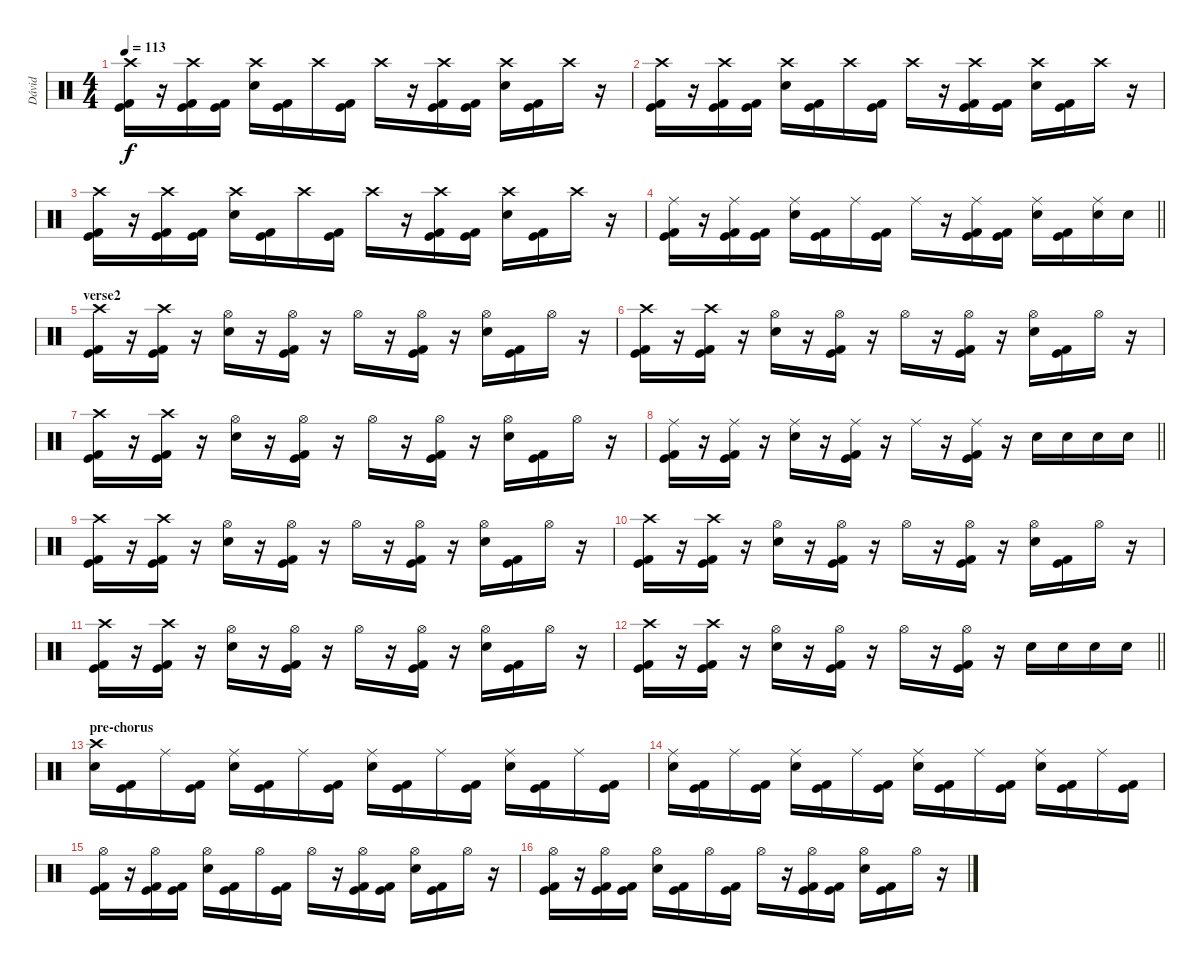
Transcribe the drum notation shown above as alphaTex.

\track ("Dávid" "Dávid") {instrument percussion}
\staff {score}
\articulation defaults
\ts (4 4)
\tempo 113
\clef neutral
\ks c
("Crash high (hit)" "Kick (hit)" "Kick (hit) 2").16{dy f} r.16 ("Crash high (hit)" "Kick (hit)" "Kick (hit) 2").16 ("Kick (hit)" "Kick (hit) 2").16 ("Crash high (hit)" "Snare (hit) 2").16 ("Kick (hit)" "Kick (hit) 2").16 "Crash high (hit)".16 ("Kick (hit)" "Kick (hit) 2").16 "Crash high (hit)".16 r.16 ("Crash high (hit)" "Kick (hit)" "Kick (hit) 2").16 ("Kick (hit) 2" "Kick (hit)").16 ("Crash high (hit)" "Snare (hit) 2").16 ("Kick (hit)" "Kick (hit) 2").16 "Crash high (hit)".16 r.16 |
("Crash high (hit)" "Kick (hit)" "Kick (hit) 2").16 r.16 ("Crash high (hit)" "Kick (hit)" "Kick (hit) 2").16 ("Kick (hit)" "Kick (hit) 2").16 ("Crash high (hit)" "Snare (hit) 2").16 ("Kick (hit)" "Kick (hit) 2").16 "Crash high (hit)".16 ("Kick (hit)" "Kick (hit) 2").16 "Crash high (hit)".16 r.16 ("Crash high (hit)" "Kick (hit)" "Kick (hit) 2").16 ("Kick (hit) 2" "Kick (hit)").16 ("Crash high (hit)" "Snare (hit) 2").16 ("Kick (hit)" "Kick (hit) 2").16 "Crash high (hit)".16 r.16 |
("Crash high (hit)" "Kick (hit)" "Kick (hit) 2").16 r.16 ("Crash high (hit)" "Kick (hit)" "Kick (hit) 2").16 ("Kick (hit)" "Kick (hit) 2").16 ("Crash high (hit)" "Snare (hit) 2").16 ("Kick (hit)" "Kick (hit) 2").16 "Crash high (hit)".16 ("Kick (hit)" "Kick (hit) 2").16 "Crash high (hit)".16 r.16 ("Crash high (hit)" "Kick (hit)" "Kick (hit) 2").16 ("Kick (hit) 2" "Kick (hit)").16 ("Crash high (hit)" "Snare (hit) 2").16 ("Kick (hit)" "Kick (hit) 2").16 "Crash high (hit)".16 r.16 |
\barLineRight lightlight
("Ride (middle)" "Kick (hit)" "Kick (hit) 2").16 r.16 ("Ride (middle)" "Kick (hit)" "Kick (hit) 2").16 ("Kick (hit)" "Kick (hit) 2").16 ("Ride (middle)" "Snare (hit) 2").16 ("Kick (hit)" "Kick (hit) 2").16 "Ride (middle)".16 ("Kick (hit)" "Kick (hit) 2").16 "Ride (middle)".16 r.16 ("Ride (middle)" "Kick (hit)" "Kick (hit) 2").16 ("Kick (hit) 2" "Kick (hit)").16 ("Ride (middle)" "Snare (hit) 2").16 ("Kick (hit)" "Kick (hit) 2").16 ("Ride (middle)" "Snare (hit) 2").16 "Snare (hit) 2".16 |
\section ("" "verse2")
("Crash high (hit)" "Kick (hit)" "Kick (hit) 2").16 r.16 ("Crash high (hit)" "Kick (hit)" "Kick (hit) 2").16 r.16 ("Hi-Hat (open)" "Snare (hit) 2").16 r.16 ("Hi-Hat (open)" "Kick (hit) 2" "Kick (hit)").16 r.16 "Hi-Hat (open)".16 r.16 ("Hi-Hat (open)" "Kick (hit) 2" "Kick (hit)").16 r.16 ("Hi-Hat (open)" "Snare (hit) 2").16 ("Kick (hit) 2" "Kick (hit)").16 "Hi-Hat (open)".16 r.16 |
("Crash high (hit)" "Kick (hit)" "Kick (hit) 2").16 r.16 ("Crash high (hit)" "Kick (hit)" "Kick (hit) 2").16 r.16 ("Hi-Hat (open)" "Snare (hit) 2").16 r.16 ("Hi-Hat (open)" "Kick (hit) 2" "Kick (hit)").16 r.16 "Hi-Hat (open)".16 r.16 ("Hi-Hat (open)" "Kick (hit) 2" "Kick (hit)").16 r.16 ("Hi-Hat (open)" "Snare (hit) 2").16 ("Kick (hit) 2" "Kick (hit)").16 "Hi-Hat (open)".16 r.16 |
("Crash high (hit)" "Kick (hit)" "Kick (hit) 2").16 r.16 ("Crash high (hit)" "Kick (hit)" "Kick (hit) 2").16 r.16 ("Hi-Hat (open)" "Snare (hit) 2").16 r.16 ("Hi-Hat (open)" "Kick (hit) 2" "Kick (hit)").16 r.16 "Hi-Hat (open)".16 r.16 ("Hi-Hat (open)" "Kick (hit) 2" "Kick (hit)").16 r.16 ("Hi-Hat (open)" "Snare (hit) 2").16 ("Kick (hit) 2" "Kick (hit)").16 "Hi-Hat (open)".16 r.16 |
\barLineRight lightlight
("Ride (middle)" "Kick (hit)" "Kick (hit) 2").16 r.16 ("Ride (middle)" "Kick (hit)" "Kick (hit) 2").16 r.16 ("Ride (middle)" "Snare (hit) 2").16 r.16 ("Ride (middle)" "Kick (hit) 2" "Kick (hit)").16 r.16 "Ride (middle)".16 r.16 ("Ride (middle)" "Kick (hit) 2" "Kick (hit)").16 r.16 "Snare (hit) 2".16 "Snare (hit) 2".16 "Snare (hit) 2".16 "Snare (hit) 2".16 |
("Crash high (hit)" "Kick (hit)" "Kick (hit) 2").16 r.16 ("Crash high (hit)" "Kick (hit)" "Kick (hit) 2").16 r.16 ("Hi-Hat (open)" "Snare (hit) 2").16 r.16 ("Hi-Hat (open)" "Kick (hit) 2" "Kick (hit)").16 r.16 "Hi-Hat (open)".16 r.16 ("Hi-Hat (open)" "Kick (hit) 2" "Kick (hit)").16 r.16 ("Hi-Hat (open)" "Snare (hit) 2").16 ("Kick (hit) 2" "Kick (hit)").16 "Hi-Hat (open)".16 r.16 |
("Crash high (hit)" "Kick (hit)" "Kick (hit) 2").16 r.16 ("Crash high (hit)" "Kick (hit)" "Kick (hit) 2").16 r.16 ("Hi-Hat (open)" "Snare (hit) 2").16 r.16 ("Hi-Hat (open)" "Kick (hit) 2" "Kick (hit)").16 r.16 "Hi-Hat (open)".16 r.16 ("Hi-Hat (open)" "Kick (hit) 2" "Kick (hit)").16 r.16 ("Hi-Hat (open)" "Snare (hit) 2").16 ("Kick (hit) 2" "Kick (hit)").16 "Hi-Hat (open)".16 r.16 |
("Crash high (hit)" "Kick (hit)" "Kick (hit) 2").16 r.16 ("Crash high (hit)" "Kick (hit)" "Kick (hit) 2").16 r.16 ("Hi-Hat (open)" "Snare (hit) 2").16 r.16 ("Hi-Hat (open)" "Kick (hit) 2" "Kick (hit)").16 r.16 "Hi-Hat (open)".16 r.16 ("Hi-Hat (open)" "Kick (hit) 2" "Kick (hit)").16 r.16 ("Hi-Hat (open)" "Snare (hit) 2").16 ("Kick (hit) 2" "Kick (hit)").16 "Hi-Hat (open)".16 r.16 |
\barLineRight lightlight
("Crash high (hit)" "Kick (hit)" "Kick (hit) 2").16 r.16 ("Crash high (hit)" "Kick (hit)" "Kick (hit) 2").16 r.16 ("Hi-Hat (open)" "Snare (hit) 2").16 r.16 ("Hi-Hat (open)" "Kick (hit) 2" "Kick (hit)").16 r.16 "Hi-Hat (open)".16 r.16 ("Hi-Hat (open)" "Kick (hit) 2" "Kick (hit)").16 r.16 "Snare (hit) 2".16 "Snare (hit) 2".16 "Snare (hit) 2".16 "Snare (hit) 2".16 |
\section ("" "pre-chorus")
("Crash high (hit)" "Snare (hit) 2").16 ("Kick (hit)" "Kick (hit) 2").16 "Ride (middle)".16 ("Kick (hit)" "Kick (hit) 2").16 ("Ride (middle)" "Snare (hit) 2").16 ("Kick (hit)" "Kick (hit) 2").16 "Ride (middle)".16 ("Kick (hit)" "Kick (hit) 2").16 ("Ride (middle)" "Snare (hit) 2").16 ("Kick (hit)" "Kick (hit) 2").16 "Ride (middle)".16 ("Kick (hit)" "Kick (hit) 2").16 ("Ride (middle)" "Snare (hit) 2").16 ("Kick (hit)" "Kick (hit) 2").16 "Ride (middle)".16 ("Kick (hit)" "Kick (hit) 2").16 |
("Ride (middle)" "Snare (hit) 2").16 ("Kick (hit)" "Kick (hit) 2").16 "Ride (middle)".16 ("Kick (hit)" "Kick (hit) 2").16 ("Ride (middle)" "Snare (hit) 2").16 ("Kick (hit)" "Kick (hit) 2").16 "Ride (middle)".16 ("Kick (hit)" "Kick (hit) 2").16 ("Ride (middle)" "Snare (hit) 2").16 ("Kick (hit)" "Kick (hit) 2").16 "Ride (middle)".16 ("Kick (hit)" "Kick (hit) 2").16 ("Ride (middle)" "Snare (hit) 2").16 ("Kick (hit)" "Kick (hit) 2").16 "Ride (middle)".16 ("Kick (hit)" "Kick (hit) 2").16 |
("Hi-Hat (open)" "Kick (hit)" "Kick (hit) 2").16 r.16 ("Hi-Hat (open)" "Kick (hit)" "Kick (hit) 2").16 ("Kick (hit)" "Kick (hit) 2").16 ("Hi-Hat (open)" "Snare (hit) 2").16 ("Kick (hit)" "Kick (hit) 2").16 "Hi-Hat (open)".16 ("Kick (hit)" "Kick (hit) 2").16 "Hi-Hat (open)".16 r.16 ("Hi-Hat (open)" "Kick (hit)" "Kick (hit) 2").16 ("Kick (hit) 2" "Kick (hit)").16 ("Hi-Hat (open)" "Snare (hit) 2").16 ("Kick (hit)" "Kick (hit) 2").16 "Hi-Hat (open)".16 r.16 |
("Hi-Hat (open)" "Kick (hit)" "Kick (hit) 2").16 r.16 ("Hi-Hat (open)" "Kick (hit)" "Kick (hit) 2").16 ("Kick (hit)" "Kick (hit) 2").16 ("Hi-Hat (open)" "Snare (hit) 2").16 ("Kick (hit)" "Kick (hit) 2").16 "Hi-Hat (open)".16 ("Kick (hit)" "Kick (hit) 2").16 "Hi-Hat (open)".16 r.16 ("Hi-Hat (open)" "Kick (hit)" "Kick (hit) 2").16 ("Kick (hit) 2" "Kick (hit)").16 ("Hi-Hat (open)" "Snare (hit) 2").16 ("Kick (hit)" "Kick (hit) 2").16 "Hi-Hat (open)".16 r.16
